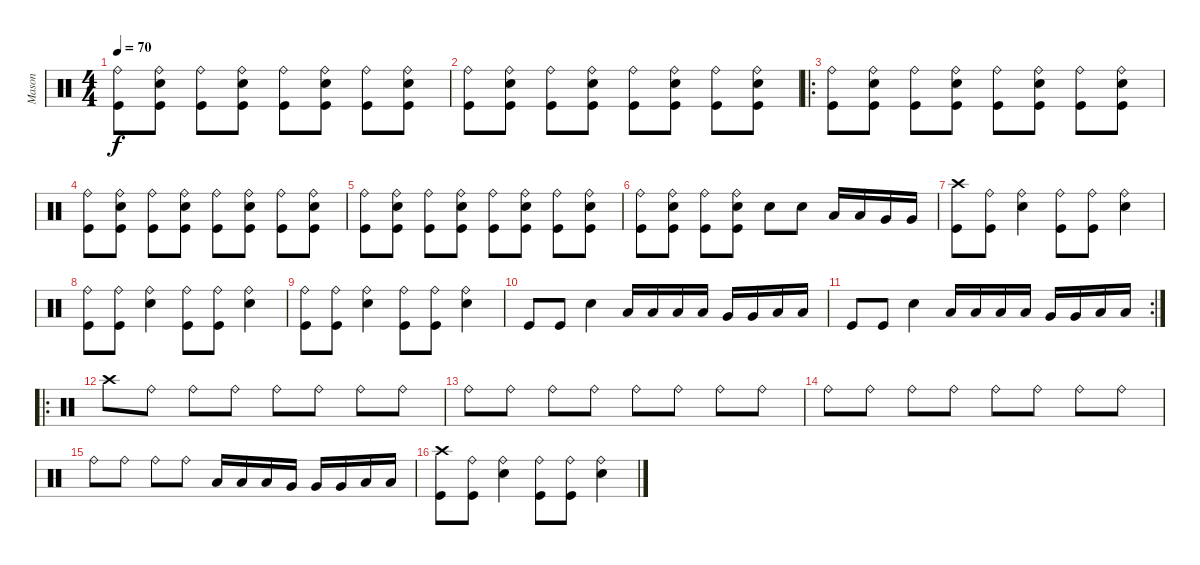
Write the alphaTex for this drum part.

\track ("Mason" "Mason") {instrument percussion}
\staff {score}
\articulation defaults
\ts (4 4)
\tempo 70
\clef neutral
\ks c
("Kick (hit)" "Ride (bell)").8{dy f} ("Kick (hit)" "Snare (hit) 2" "Ride (bell)").8 ("Kick (hit)" "Ride (bell)").8 ("Kick (hit)" "Snare (hit) 2" "Ride (bell)").8 ("Kick (hit)" "Ride (bell)").8 ("Kick (hit)" "Snare (hit) 2" "Ride (bell)").8 ("Kick (hit)" "Ride (bell)").8 ("Kick (hit)" "Snare (hit) 2" "Ride (bell)").8 |
("Kick (hit)" "Ride (bell)").8 ("Kick (hit)" "Snare (hit) 2" "Ride (bell)").8 ("Kick (hit)" "Ride (bell)").8 ("Kick (hit)" "Snare (hit) 2" "Ride (bell)").8 ("Kick (hit)" "Ride (bell)").8 ("Kick (hit)" "Snare (hit) 2" "Ride (bell)").8 ("Kick (hit)" "Ride (bell)").8 ("Kick (hit)" "Snare (hit) 2" "Ride (bell)").8 |
\ro
("Kick (hit)" "Ride (bell)").8 ("Kick (hit)" "Snare (hit) 2" "Ride (bell)").8 ("Kick (hit)" "Ride (bell)").8 ("Kick (hit)" "Snare (hit) 2" "Ride (bell)").8 ("Kick (hit)" "Ride (bell)").8 ("Kick (hit)" "Snare (hit) 2" "Ride (bell)").8 ("Kick (hit)" "Ride (bell)").8 ("Kick (hit)" "Snare (hit) 2" "Ride (bell)").8 |
("Kick (hit)" "Ride (bell)").8 ("Kick (hit)" "Snare (hit) 2" "Ride (bell)").8 ("Kick (hit)" "Ride (bell)").8 ("Kick (hit)" "Snare (hit) 2" "Ride (bell)").8 ("Kick (hit)" "Ride (bell)").8 ("Kick (hit)" "Snare (hit) 2" "Ride (bell)").8 ("Kick (hit)" "Ride (bell)").8 ("Kick (hit)" "Snare (hit) 2" "Ride (bell)").8 |
("Kick (hit)" "Ride (bell)").8 ("Kick (hit)" "Snare (hit) 2" "Ride (bell)").8 ("Kick (hit)" "Ride (bell)").8 ("Kick (hit)" "Snare (hit) 2" "Ride (bell)").8 ("Kick (hit)" "Ride (bell)").8 ("Kick (hit)" "Snare (hit) 2" "Ride (bell)").8 ("Kick (hit)" "Ride (bell)").8 ("Kick (hit)" "Snare (hit) 2" "Ride (bell)").8 |
("Kick (hit)" "Ride (bell)").8 ("Kick (hit)" "Snare (hit) 2" "Ride (bell)").8 ("Kick (hit)" "Ride (bell)").8 ("Kick (hit)" "Snare (hit) 2" "Ride (bell)").8 "Snare (hit) 2".8 "Snare (hit) 2".8 "Low Tom (hit)".16 "Low Tom (hit)".16 "Very Low Tom (hit)".16 "Very Low Tom (hit)".16 |
("Kick (hit)" "Crash high (hit)").8 ("Kick (hit)" "Ride (bell)").8 ("Snare (hit) 2" "Ride (bell)").4 ("Kick (hit)" "Ride (bell)").8 ("Kick (hit)" "Ride (bell)").8 ("Snare (hit) 2" "Ride (bell)").4 |
("Kick (hit)" "Ride (bell)").8 ("Kick (hit)" "Ride (bell)").8 ("Snare (hit) 2" "Ride (bell)").4 ("Kick (hit)" "Ride (bell)").8 ("Kick (hit)" "Ride (bell)").8 ("Snare (hit) 2" "Ride (bell)").4 |
("Kick (hit)" "Ride (bell)").8 ("Kick (hit)" "Ride (bell)").8 ("Snare (hit) 2" "Ride (bell)").4 ("Kick (hit)" "Ride (bell)").8 ("Kick (hit)" "Ride (bell)").8 ("Snare (hit) 2" "Ride (bell)").4 |
"Kick (hit)".8 "Kick (hit)".8 "Snare (hit) 2".4 "Low Tom (hit)".16 "Low Tom (hit)".16 "Low Tom (hit)".16 "Low Tom (hit)".16 "Very Low Tom (hit)".16 "Very Low Tom (hit)".16 "Low Floor Tom (hit)".16 "Low Floor Tom (hit)".16 |
\rc 2 "Kick (hit)".8 "Kick (hit)".8 "Snare (hit) 2".4 "Low Tom (hit)".16 "Low Tom (hit)".16 "Low Tom (hit)".16 "Low Tom (hit)".16 "Very Low Tom (hit)".16 "Very Low Tom (hit)".16 "Low Floor Tom (hit)".16 "Low Floor Tom (hit)".16
|
\ro "Crash high (hit)".8 "Ride (bell)".8 "Ride (bell)".8 "Ride (bell)".8 "Ride (bell)".8 "Ride (bell)".8 "Ride (bell)".8 "Ride (bell)".8
|
"Ride (bell)".8 "Ride (bell)".8 "Ride (bell)".8 "Ride (bell)".8 "Ride (bell)".8 "Ride (bell)".8 "Ride (bell)".8 "Ride (bell)".8 |
"Ride (bell)".8 "Ride (bell)".8 "Ride (bell)".8 "Ride (bell)".8 "Ride (bell)".8 "Ride (bell)".8 "Ride (bell)".8 "Ride (bell)".8 |
"Ride (bell)".8 "Ride (bell)".8 "Ride (bell)".8 "Ride (bell)".8 "Low Floor Tom (hit)".16 "Low Floor Tom (hit)".16 "Low Floor Tom (hit)".16 "Very Low Tom (hit)".16 "Very Low Tom (hit)".16 "Very Low Tom (hit)".16 "Low Tom (hit)".16 "Low Tom (hit)".16 |
("Kick (hit)" "Crash high (hit)").8 ("Kick (hit)" "Ride (bell)").8 ("Snare (hit) 2" "Ride (bell)").4 ("Kick (hit)" "Ride (bell)").8 ("Kick (hit)" "Ride (bell)").8 ("Snare (hit) 2" "Ride (bell)").4
